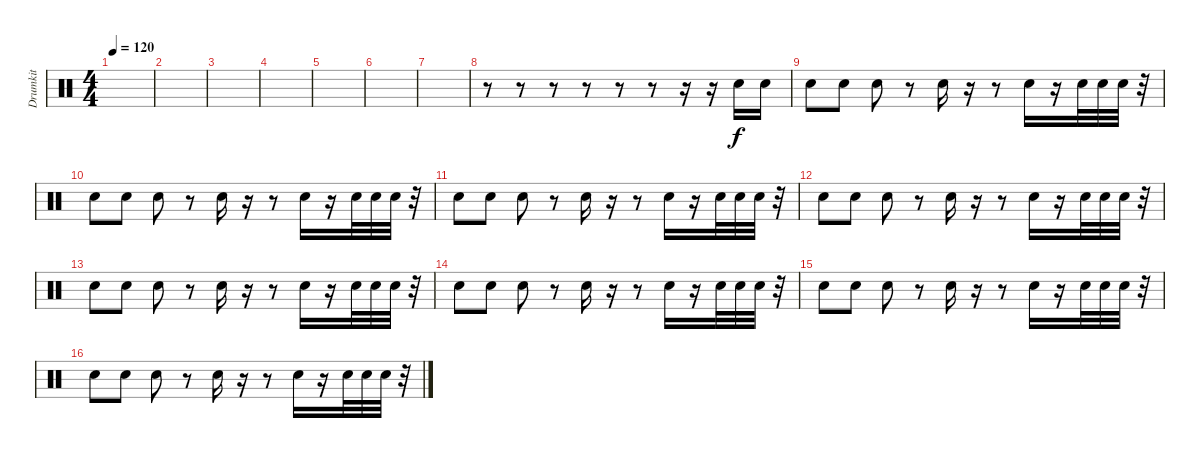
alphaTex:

\track ("Drumkit" "Drumkit") {instrument percussion}
\staff {score}
\articulation defaults
\ts (4 4)
\tempo 120
\clef neutral
\ks c
|
|
|
|
|
|
|
r.8 r.8 r.8 r.8 r.8 r.8 r.16 r.16 "Snare (hit) 2".16 "Snare (hit) 2".16 |
"Snare (hit) 2".8 "Snare (hit) 2".8 "Snare (hit) 2".8 r.8 "Snare (hit) 2".16 r.16 r.8 "Snare (hit) 2".16 r.16 "Snare (hit) 2".32 "Snare (hit) 2".32 "Snare (hit) 2".32 r.32 |
"Snare (hit) 2".8 "Snare (hit) 2".8 "Snare (hit) 2".8 r.8 "Snare (hit) 2".16 r.16 r.8 "Snare (hit) 2".16 r.16 "Snare (hit) 2".32 "Snare (hit) 2".32 "Snare (hit) 2".32 r.32 |
"Snare (hit) 2".8 "Snare (hit) 2".8 "Snare (hit) 2".8 r.8 "Snare (hit) 2".16 r.16 r.8 "Snare (hit) 2".16 r.16 "Snare (hit) 2".32 "Snare (hit) 2".32 "Snare (hit) 2".32 r.32 |
"Snare (hit) 2".8 "Snare (hit) 2".8 "Snare (hit) 2".8 r.8 "Snare (hit) 2".16 r.16 r.8 "Snare (hit) 2".16 r.16 "Snare (hit) 2".32 "Snare (hit) 2".32 "Snare (hit) 2".32 r.32 |
"Snare (hit) 2".8 "Snare (hit) 2".8 "Snare (hit) 2".8 r.8 "Snare (hit) 2".16 r.16 r.8 "Snare (hit) 2".16 r.16 "Snare (hit) 2".32 "Snare (hit) 2".32 "Snare (hit) 2".32 r.32 |
"Snare (hit) 2".8 "Snare (hit) 2".8 "Snare (hit) 2".8 r.8 "Snare (hit) 2".16 r.16 r.8 "Snare (hit) 2".16 r.16 "Snare (hit) 2".32 "Snare (hit) 2".32 "Snare (hit) 2".32 r.32 |
"Snare (hit) 2".8 "Snare (hit) 2".8 "Snare (hit) 2".8 r.8 "Snare (hit) 2".16 r.16 r.8 "Snare (hit) 2".16 r.16 "Snare (hit) 2".32 "Snare (hit) 2".32 "Snare (hit) 2".32 r.32 |
"Snare (hit) 2".8 "Snare (hit) 2".8 "Snare (hit) 2".8 r.8 "Snare (hit) 2".16 r.16 r.8 "Snare (hit) 2".16 r.16 "Snare (hit) 2".32 "Snare (hit) 2".32 "Snare (hit) 2".32 r.32
